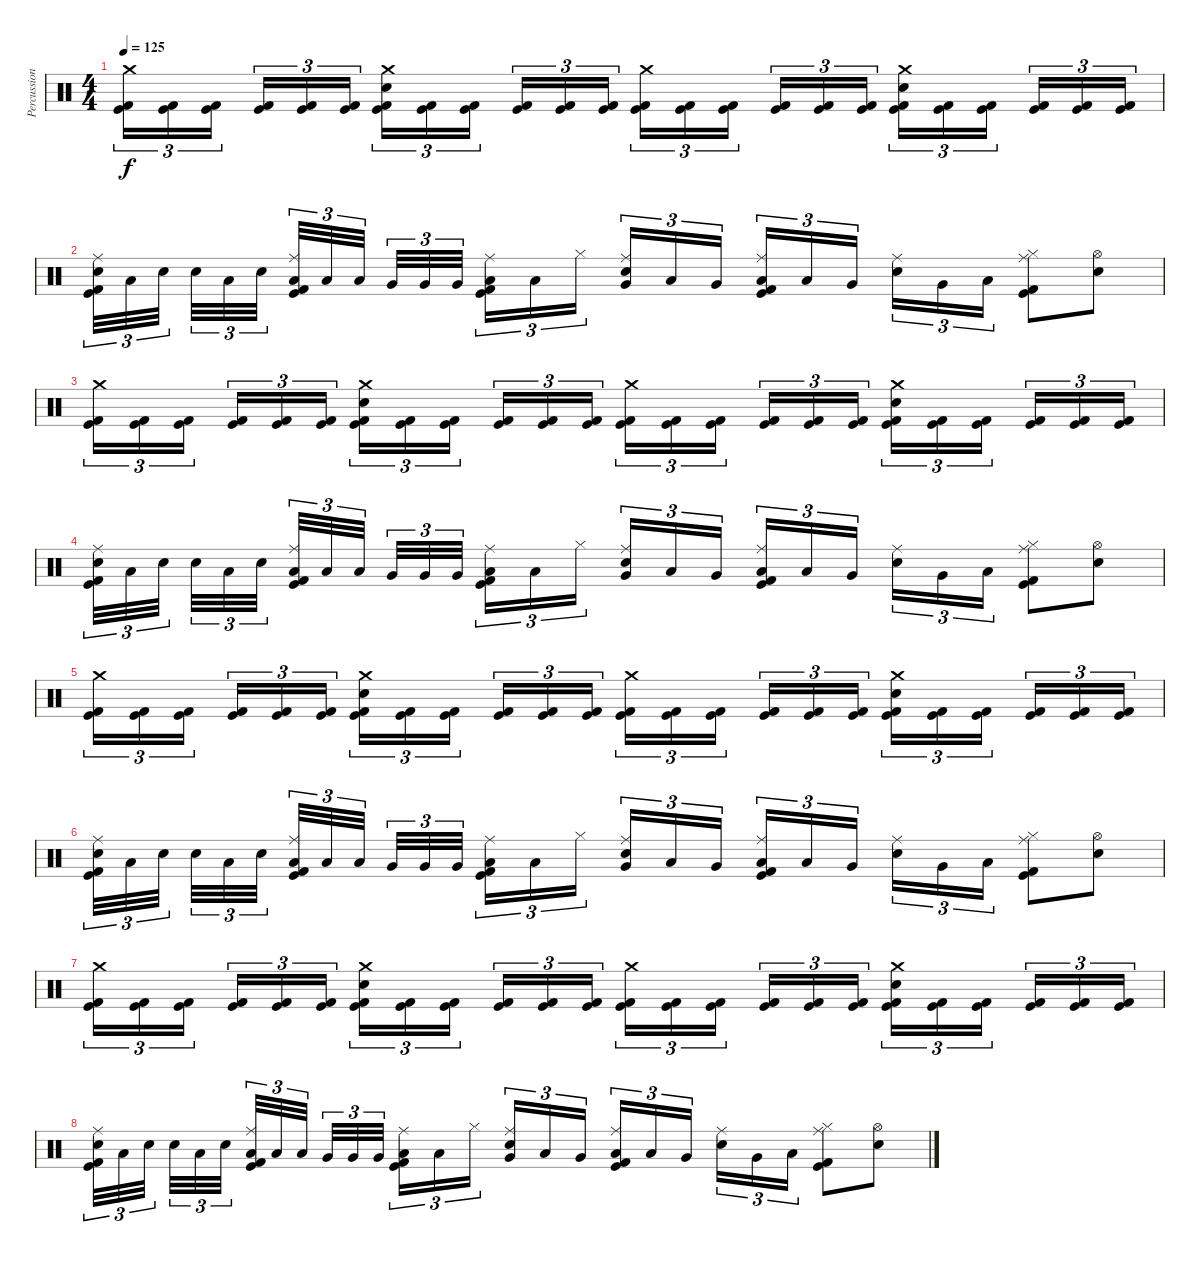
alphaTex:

\track ("Percussion" "Percussion") {instrument percussion}
\staff {score}
\articulation defaults
\ts (4 4)
\tempo 125
\clef neutral
\ks c
("Crash medium (hit)" "Kick (hit)" "Kick (hit) 2").16{tu (3 2) dy f} ("Kick (hit)" "Kick (hit) 2").16{tu (3 2)} ("Kick (hit)" "Kick (hit) 2").16{tu (3 2) beam splitsecondary} ("Kick (hit)" "Kick (hit) 2").16{tu (3 2)} ("Kick (hit)" "Kick (hit) 2").16{tu (3 2)} ("Kick (hit)" "Kick (hit) 2").16{tu (3 2)} ("Crash medium (hit)" "Electric Snare (hit)" "Kick (hit)" "Kick (hit) 2").16{tu (3 2)} ("Kick (hit)" "Kick (hit) 2").16{tu (3 2)} ("Kick (hit)" "Kick (hit) 2").16{tu (3 2) beam splitsecondary} ("Kick (hit)" "Kick (hit) 2").16{tu (3 2)} ("Kick (hit)" "Kick (hit) 2").16{tu (3 2)} ("Kick (hit)" "Kick (hit) 2").16{tu (3 2)} ("Crash medium (hit)" "Kick (hit)" "Kick (hit) 2").16{tu (3 2)} ("Kick (hit)" "Kick (hit) 2").16{tu (3 2)} ("Kick (hit)" "Kick (hit) 2").16{tu (3 2) beam splitsecondary} ("Kick (hit)" "Kick (hit) 2").16{tu (3 2)} ("Kick (hit)" "Kick (hit) 2").16{tu (3 2)} ("Kick (hit)" "Kick (hit) 2").16{tu (3 2)} ("Crash medium (hit)" "Electric Snare (hit)" "Kick (hit)" "Kick (hit) 2").16{tu (3 2)} ("Kick (hit)" "Kick (hit) 2").16{tu (3 2)} ("Kick (hit)" "Kick (hit) 2").16{tu (3 2) beam splitsecondary} ("Kick (hit)" "Kick (hit) 2").16{tu (3 2)} ("Kick (hit)" "Kick (hit) 2").16{tu (3 2)} ("Kick (hit)" "Kick (hit) 2").16{tu (3 2)} |
("Electric Snare (hit)" "Kick (hit) 2" "Kick (hit)" "Ride (middle)").32{tu (3 2)} "Low Tom (hit)".32{tu (3 2)} "Electric Snare (hit)".32{tu (3 2) beam splitsecondary} "Electric Snare (hit)".32{tu (3 2)} "Low Tom (hit)".32{tu (3 2)} "Electric Snare (hit)".32{tu (3 2) beam splitsecondary} ("Low Tom (hit)" "Kick (hit) 2" "Kick (hit)" "Ride (middle)").32{tu (3 2)} "Low Tom (hit)".32{tu (3 2)} "Low Tom (hit)".32{tu (3 2) beam splitsecondary} "Very Low Tom (hit)".32{tu (3 2)} "Very Low Tom (hit)".32{tu (3 2)} "Very Low Tom (hit)".32{tu (3 2)} ("Low Floor Tom (hit)" "Kick (hit) 2" "Kick (hit)" "Ride (middle)").16{tu (3 2)} "Low Floor Tom (hit)".16{tu (3 2)} "Hi-Hat (closed)".16{tu (3 2) beam splitsecondary} ("Very Low Tom (hit)" "Electric Snare (hit)" "Ride (middle)").16{tu (3 2)} "Low Tom (hit)".16{tu (3 2)} "Very Low Tom (hit)".16{tu (3 2)} ("Low Floor Tom (hit)" "Kick (hit) 2" "Kick (hit)" "Ride (middle)").16{tu (3 2)} "Low Tom (hit)".16{tu (3 2)} "Very Low Tom (hit)".16{tu (3 2) beam splitsecondary} ("Electric Snare (hit)" "Ride (middle)").16{tu (3 2)} "Very Low Tom (hit)".16{tu (3 2)} "Low Tom (hit)".16{tu (3 2)} ("Hi-Hat (closed)" "Kick (hit) 2" "Kick (hit)" "Ride (middle)").8 ("Hi-Hat (open)" "Electric Snare (hit)").8 |
("Crash medium (hit)" "Kick (hit)" "Kick (hit) 2").16{tu (3 2)} ("Kick (hit)" "Kick (hit) 2").16{tu (3 2)} ("Kick (hit)" "Kick (hit) 2").16{tu (3 2) beam splitsecondary} ("Kick (hit)" "Kick (hit) 2").16{tu (3 2)} ("Kick (hit)" "Kick (hit) 2").16{tu (3 2)} ("Kick (hit)" "Kick (hit) 2").16{tu (3 2)} ("Crash medium (hit)" "Electric Snare (hit)" "Kick (hit)" "Kick (hit) 2").16{tu (3 2)} ("Kick (hit)" "Kick (hit) 2").16{tu (3 2)} ("Kick (hit)" "Kick (hit) 2").16{tu (3 2) beam splitsecondary} ("Kick (hit)" "Kick (hit) 2").16{tu (3 2)} ("Kick (hit)" "Kick (hit) 2").16{tu (3 2)} ("Kick (hit)" "Kick (hit) 2").16{tu (3 2)} ("Crash medium (hit)" "Kick (hit)" "Kick (hit) 2").16{tu (3 2)} ("Kick (hit)" "Kick (hit) 2").16{tu (3 2)} ("Kick (hit)" "Kick (hit) 2").16{tu (3 2) beam splitsecondary} ("Kick (hit)" "Kick (hit) 2").16{tu (3 2)} ("Kick (hit)" "Kick (hit) 2").16{tu (3 2)} ("Kick (hit)" "Kick (hit) 2").16{tu (3 2)} ("Crash medium (hit)" "Electric Snare (hit)" "Kick (hit)" "Kick (hit) 2").16{tu (3 2)} ("Kick (hit)" "Kick (hit) 2").16{tu (3 2)} ("Kick (hit)" "Kick (hit) 2").16{tu (3 2) beam splitsecondary} ("Kick (hit)" "Kick (hit) 2").16{tu (3 2)} ("Kick (hit)" "Kick (hit) 2").16{tu (3 2)} ("Kick (hit)" "Kick (hit) 2").16{tu (3 2)} |
("Electric Snare (hit)" "Kick (hit) 2" "Kick (hit)" "Ride (middle)").32{tu (3 2)} "Low Tom (hit)".32{tu (3 2)} "Electric Snare (hit)".32{tu (3 2) beam splitsecondary} "Electric Snare (hit)".32{tu (3 2)} "Low Tom (hit)".32{tu (3 2)} "Electric Snare (hit)".32{tu (3 2) beam splitsecondary} ("Low Tom (hit)" "Kick (hit) 2" "Kick (hit)" "Ride (middle)").32{tu (3 2)} "Low Tom (hit)".32{tu (3 2)} "Low Tom (hit)".32{tu (3 2) beam splitsecondary} "Very Low Tom (hit)".32{tu (3 2)} "Very Low Tom (hit)".32{tu (3 2)} "Very Low Tom (hit)".32{tu (3 2)} ("Low Floor Tom (hit)" "Kick (hit) 2" "Kick (hit)" "Ride (middle)").16{tu (3 2)} "Low Floor Tom (hit)".16{tu (3 2)} "Hi-Hat (closed)".16{tu (3 2) beam splitsecondary} ("Very Low Tom (hit)" "Electric Snare (hit)" "Ride (middle)").16{tu (3 2)} "Low Tom (hit)".16{tu (3 2)} "Very Low Tom (hit)".16{tu (3 2)} ("Low Floor Tom (hit)" "Kick (hit) 2" "Kick (hit)" "Ride (middle)").16{tu (3 2)} "Low Tom (hit)".16{tu (3 2)} "Very Low Tom (hit)".16{tu (3 2) beam splitsecondary} ("Electric Snare (hit)" "Ride (middle)").16{tu (3 2)} "Very Low Tom (hit)".16{tu (3 2)} "Low Tom (hit)".16{tu (3 2)} ("Hi-Hat (closed)" "Kick (hit) 2" "Kick (hit)" "Ride (middle)").8 ("Hi-Hat (open)" "Electric Snare (hit)").8 |
("Crash medium (hit)" "Kick (hit)" "Kick (hit) 2").16{tu (3 2)} ("Kick (hit)" "Kick (hit) 2").16{tu (3 2)} ("Kick (hit)" "Kick (hit) 2").16{tu (3 2) beam splitsecondary} ("Kick (hit)" "Kick (hit) 2").16{tu (3 2)} ("Kick (hit)" "Kick (hit) 2").16{tu (3 2)} ("Kick (hit)" "Kick (hit) 2").16{tu (3 2)} ("Crash medium (hit)" "Electric Snare (hit)" "Kick (hit)" "Kick (hit) 2").16{tu (3 2)} ("Kick (hit)" "Kick (hit) 2").16{tu (3 2)} ("Kick (hit)" "Kick (hit) 2").16{tu (3 2) beam splitsecondary} ("Kick (hit)" "Kick (hit) 2").16{tu (3 2)} ("Kick (hit)" "Kick (hit) 2").16{tu (3 2)} ("Kick (hit)" "Kick (hit) 2").16{tu (3 2)} ("Crash medium (hit)" "Kick (hit)" "Kick (hit) 2").16{tu (3 2)} ("Kick (hit)" "Kick (hit) 2").16{tu (3 2)} ("Kick (hit)" "Kick (hit) 2").16{tu (3 2) beam splitsecondary} ("Kick (hit)" "Kick (hit) 2").16{tu (3 2)} ("Kick (hit)" "Kick (hit) 2").16{tu (3 2)} ("Kick (hit)" "Kick (hit) 2").16{tu (3 2)} ("Crash medium (hit)" "Electric Snare (hit)" "Kick (hit)" "Kick (hit) 2").16{tu (3 2)} ("Kick (hit)" "Kick (hit) 2").16{tu (3 2)} ("Kick (hit)" "Kick (hit) 2").16{tu (3 2) beam splitsecondary} ("Kick (hit)" "Kick (hit) 2").16{tu (3 2)} ("Kick (hit)" "Kick (hit) 2").16{tu (3 2)} ("Kick (hit)" "Kick (hit) 2").16{tu (3 2)} |
("Electric Snare (hit)" "Kick (hit) 2" "Kick (hit)" "Ride (middle)").32{tu (3 2)} "Low Tom (hit)".32{tu (3 2)} "Electric Snare (hit)".32{tu (3 2) beam splitsecondary} "Electric Snare (hit)".32{tu (3 2)} "Low Tom (hit)".32{tu (3 2)} "Electric Snare (hit)".32{tu (3 2) beam splitsecondary} ("Low Tom (hit)" "Kick (hit) 2" "Kick (hit)" "Ride (middle)").32{tu (3 2)} "Low Tom (hit)".32{tu (3 2)} "Low Tom (hit)".32{tu (3 2) beam splitsecondary} "Very Low Tom (hit)".32{tu (3 2)} "Very Low Tom (hit)".32{tu (3 2)} "Very Low Tom (hit)".32{tu (3 2)} ("Low Floor Tom (hit)" "Kick (hit) 2" "Kick (hit)" "Ride (middle)").16{tu (3 2)} "Low Floor Tom (hit)".16{tu (3 2)} "Hi-Hat (closed)".16{tu (3 2) beam splitsecondary} ("Very Low Tom (hit)" "Electric Snare (hit)" "Ride (middle)").16{tu (3 2)} "Low Tom (hit)".16{tu (3 2)} "Very Low Tom (hit)".16{tu (3 2)} ("Low Floor Tom (hit)" "Kick (hit) 2" "Kick (hit)" "Ride (middle)").16{tu (3 2)} "Low Tom (hit)".16{tu (3 2)} "Very Low Tom (hit)".16{tu (3 2) beam splitsecondary} ("Electric Snare (hit)" "Ride (middle)").16{tu (3 2)} "Very Low Tom (hit)".16{tu (3 2)} "Low Tom (hit)".16{tu (3 2)} ("Hi-Hat (closed)" "Kick (hit) 2" "Kick (hit)" "Ride (middle)").8 ("Hi-Hat (open)" "Electric Snare (hit)").8 |
("Crash medium (hit)" "Kick (hit)" "Kick (hit) 2").16{tu (3 2)} ("Kick (hit)" "Kick (hit) 2").16{tu (3 2)} ("Kick (hit)" "Kick (hit) 2").16{tu (3 2) beam splitsecondary} ("Kick (hit)" "Kick (hit) 2").16{tu (3 2)} ("Kick (hit)" "Kick (hit) 2").16{tu (3 2)} ("Kick (hit)" "Kick (hit) 2").16{tu (3 2)} ("Crash medium (hit)" "Electric Snare (hit)" "Kick (hit)" "Kick (hit) 2").16{tu (3 2)} ("Kick (hit)" "Kick (hit) 2").16{tu (3 2)} ("Kick (hit)" "Kick (hit) 2").16{tu (3 2) beam splitsecondary} ("Kick (hit)" "Kick (hit) 2").16{tu (3 2)} ("Kick (hit)" "Kick (hit) 2").16{tu (3 2)} ("Kick (hit)" "Kick (hit) 2").16{tu (3 2)} ("Crash medium (hit)" "Kick (hit)" "Kick (hit) 2").16{tu (3 2)} ("Kick (hit)" "Kick (hit) 2").16{tu (3 2)} ("Kick (hit)" "Kick (hit) 2").16{tu (3 2) beam splitsecondary} ("Kick (hit)" "Kick (hit) 2").16{tu (3 2)} ("Kick (hit)" "Kick (hit) 2").16{tu (3 2)} ("Kick (hit)" "Kick (hit) 2").16{tu (3 2)} ("Crash medium (hit)" "Electric Snare (hit)" "Kick (hit)" "Kick (hit) 2").16{tu (3 2)} ("Kick (hit)" "Kick (hit) 2").16{tu (3 2)} ("Kick (hit)" "Kick (hit) 2").16{tu (3 2) beam splitsecondary} ("Kick (hit)" "Kick (hit) 2").16{tu (3 2)} ("Kick (hit)" "Kick (hit) 2").16{tu (3 2)} ("Kick (hit)" "Kick (hit) 2").16{tu (3 2)} |
("Electric Snare (hit)" "Kick (hit) 2" "Kick (hit)" "Ride (middle)").32{tu (3 2)} "Low Tom (hit)".32{tu (3 2)} "Electric Snare (hit)".32{tu (3 2) beam splitsecondary} "Electric Snare (hit)".32{tu (3 2)} "Low Tom (hit)".32{tu (3 2)} "Electric Snare (hit)".32{tu (3 2) beam splitsecondary} ("Low Tom (hit)" "Kick (hit) 2" "Kick (hit)" "Ride (middle)").32{tu (3 2)} "Low Tom (hit)".32{tu (3 2)} "Low Tom (hit)".32{tu (3 2) beam splitsecondary} "Very Low Tom (hit)".32{tu (3 2)} "Very Low Tom (hit)".32{tu (3 2)} "Very Low Tom (hit)".32{tu (3 2)} ("Low Floor Tom (hit)" "Kick (hit) 2" "Kick (hit)" "Ride (middle)").16{tu (3 2)} "Low Floor Tom (hit)".16{tu (3 2)} "Hi-Hat (closed)".16{tu (3 2) beam splitsecondary} ("Very Low Tom (hit)" "Electric Snare (hit)" "Ride (middle)").16{tu (3 2)} "Low Tom (hit)".16{tu (3 2)} "Very Low Tom (hit)".16{tu (3 2)} ("Low Floor Tom (hit)" "Kick (hit) 2" "Kick (hit)" "Ride (middle)").16{tu (3 2)} "Low Tom (hit)".16{tu (3 2)} "Very Low Tom (hit)".16{tu (3 2) beam splitsecondary} ("Electric Snare (hit)" "Ride (middle)").16{tu (3 2)} "Very Low Tom (hit)".16{tu (3 2)} "Low Tom (hit)".16{tu (3 2)} ("Hi-Hat (closed)" "Kick (hit) 2" "Kick (hit)" "Ride (middle)").8 ("Hi-Hat (open)" "Electric Snare (hit)").8
